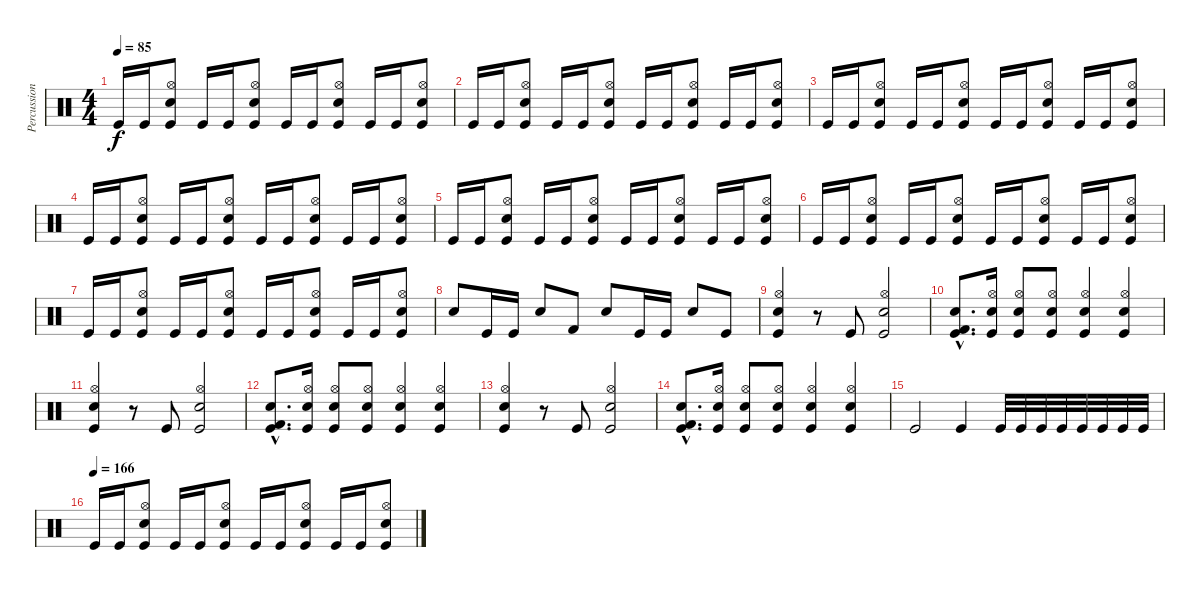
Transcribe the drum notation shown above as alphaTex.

\track ("Percussioni" "Percussion") {instrument percussion}
\staff {score}
\articulation defaults
\ts (4 4)
\tempo 85
\clef neutral
\ks c "Kick (hit)".16{dy f} "Kick (hit)".16
("Hi-Hat (open)" "Snare (hit) 2" "Kick (hit)").8 "Kick (hit)".16 "Kick (hit)".16 ("Hi-Hat (open)" "Snare (hit) 2" "Kick (hit)").8 "Kick (hit)".16 "Kick (hit)".16 ("Hi-Hat (open)" "Snare (hit) 2" "Kick (hit)").8 "Kick (hit)".16 "Kick (hit)".16 ("Hi-Hat (open)" "Snare (hit) 2" "Kick (hit)").8 |
"Kick (hit)".16 "Kick (hit)".16 ("Hi-Hat (open)" "Snare (hit) 2" "Kick (hit)").8 "Kick (hit)".16 "Kick (hit)".16 ("Hi-Hat (open)" "Snare (hit) 2" "Kick (hit)").8 "Kick (hit)".16 "Kick (hit)".16 ("Hi-Hat (open)" "Snare (hit) 2" "Kick (hit)").8 "Kick (hit)".16 "Kick (hit)".16 ("Hi-Hat (open)" "Snare (hit) 2" "Kick (hit)").8 |
"Kick (hit)".16 "Kick (hit)".16 ("Hi-Hat (open)" "Snare (hit) 2" "Kick (hit)").8 "Kick (hit)".16 "Kick (hit)".16 ("Hi-Hat (open)" "Snare (hit) 2" "Kick (hit)").8 "Kick (hit)".16 "Kick (hit)".16 ("Hi-Hat (open)" "Snare (hit) 2" "Kick (hit)").8 "Kick (hit)".16 "Kick (hit)".16 ("Hi-Hat (open)" "Snare (hit) 2" "Kick (hit)").8 |
"Kick (hit)".16 "Kick (hit)".16 ("Hi-Hat (open)" "Snare (hit) 2" "Kick (hit)").8 "Kick (hit)".16 "Kick (hit)".16 ("Hi-Hat (open)" "Snare (hit) 2" "Kick (hit)").8 "Kick (hit)".16 "Kick (hit)".16 ("Hi-Hat (open)" "Snare (hit) 2" "Kick (hit)").8 "Kick (hit)".16 "Kick (hit)".16 ("Hi-Hat (open)" "Snare (hit) 2" "Kick (hit)").8 |
"Kick (hit)".16 "Kick (hit)".16 ("Hi-Hat (open)" "Snare (hit) 2" "Kick (hit)").8 "Kick (hit)".16 "Kick (hit)".16 ("Hi-Hat (open)" "Snare (hit) 2" "Kick (hit)").8 "Kick (hit)".16 "Kick (hit)".16 ("Hi-Hat (open)" "Snare (hit) 2" "Kick (hit)").8 "Kick (hit)".16 "Kick (hit)".16 ("Hi-Hat (open)" "Snare (hit) 2" "Kick (hit)").8 |
"Kick (hit)".16 "Kick (hit)".16 ("Hi-Hat (open)" "Snare (hit) 2" "Kick (hit)").8 "Kick (hit)".16 "Kick (hit)".16 ("Hi-Hat (open)" "Snare (hit) 2" "Kick (hit)").8 "Kick (hit)".16 "Kick (hit)".16 ("Hi-Hat (open)" "Snare (hit) 2" "Kick (hit)").8 "Kick (hit)".16 "Kick (hit)".16 ("Hi-Hat (open)" "Snare (hit) 2" "Kick (hit)").8 |
"Kick (hit)".16 "Kick (hit)".16 ("Hi-Hat (open)" "Snare (hit) 2" "Kick (hit)").8 "Kick (hit)".16 "Kick (hit)".16 ("Hi-Hat (open)" "Snare (hit) 2" "Kick (hit)").8 "Kick (hit)".16 "Kick (hit)".16 ("Hi-Hat (open)" "Snare (hit) 2" "Kick (hit)").8 "Kick (hit)".16 "Kick (hit)".16 ("Hi-Hat (open)" "Snare (hit) 2" "Kick (hit)").8 |
"Snare (hit) 2".8 "Kick (hit)".16 "Kick (hit)".16 "Snare (hit) 2".8 "Kick (hit) 2".8 "Snare (hit) 2".8 "Kick (hit)".16 "Kick (hit)".16 "Snare (hit) 2".8 "Kick (hit)".8 |
("Hi-Hat (open)" "Snare (hit) 2" "Kick (hit)").4 r.8 "Kick (hit)".8 ("Hi-Hat (open)" "Snare (hit) 2" "Kick (hit)").2 |
("Kick (hit) 2"{hac} "Snare (hit) 2"{hac} "Kick (hit)"{hac}).8{d} ("Hi-Hat (open)" "Snare (hit) 2" "Kick (hit)").16 ("Hi-Hat (open)" "Snare (hit) 2" "Kick (hit)").8 ("Hi-Hat (open)" "Snare (hit) 2" "Kick (hit)").8 ("Hi-Hat (open)" "Snare (hit) 2" "Kick (hit)").4 ("Hi-Hat (open)" "Snare (hit) 2" "Kick (hit)").4 |
("Hi-Hat (open)" "Snare (hit) 2" "Kick (hit)").4 r.8 "Kick (hit)".8 ("Hi-Hat (open)" "Snare (hit) 2" "Kick (hit)").2 |
("Kick (hit) 2"{hac} "Snare (hit) 2"{hac} "Kick (hit)"{hac}).8{d} ("Hi-Hat (open)" "Snare (hit) 2" "Kick (hit)").16 ("Hi-Hat (open)" "Snare (hit) 2" "Kick (hit)").8 ("Hi-Hat (open)" "Snare (hit) 2" "Kick (hit)").8 ("Hi-Hat (open)" "Snare (hit) 2" "Kick (hit)").4 ("Hi-Hat (open)" "Snare (hit) 2" "Kick (hit)").4 |
("Hi-Hat (open)" "Snare (hit) 2" "Kick (hit)").4 r.8 "Kick (hit)".8 ("Hi-Hat (open)" "Snare (hit) 2" "Kick (hit)").2 |
("Kick (hit) 2"{hac} "Snare (hit) 2"{hac} "Kick (hit)"{hac}).8{d} ("Hi-Hat (open)" "Snare (hit) 2" "Kick (hit)").16 ("Hi-Hat (open)" "Snare (hit) 2" "Kick (hit)").8 ("Hi-Hat (open)" "Snare (hit) 2" "Kick (hit)").8 ("Hi-Hat (open)" "Snare (hit) 2" "Kick (hit)").4 ("Hi-Hat (open)" "Snare (hit) 2" "Kick (hit)").4 |
"Kick (hit)".2 "Kick (hit)".4 "Kick (hit)".32 "Kick (hit)".32 "Kick (hit)".32 "Kick (hit)".32 "Kick (hit)".32 "Kick (hit)".32 "Kick (hit)".32 "Kick (hit)".32 |
\tempo (166)
"Kick (hit)".16 "Kick (hit)".16 ("Hi-Hat (open)" "Snare (hit) 2" "Kick (hit)").8 "Kick (hit)".16 "Kick (hit)".16 ("Hi-Hat (open)" "Snare (hit) 2" "Kick (hit)").8 "Kick (hit)".16 "Kick (hit)".16 ("Hi-Hat (open)" "Snare (hit) 2" "Kick (hit)").8 "Kick (hit)".16 "Kick (hit)".16 ("Hi-Hat (open)" "Snare (hit) 2" "Kick (hit)").8
